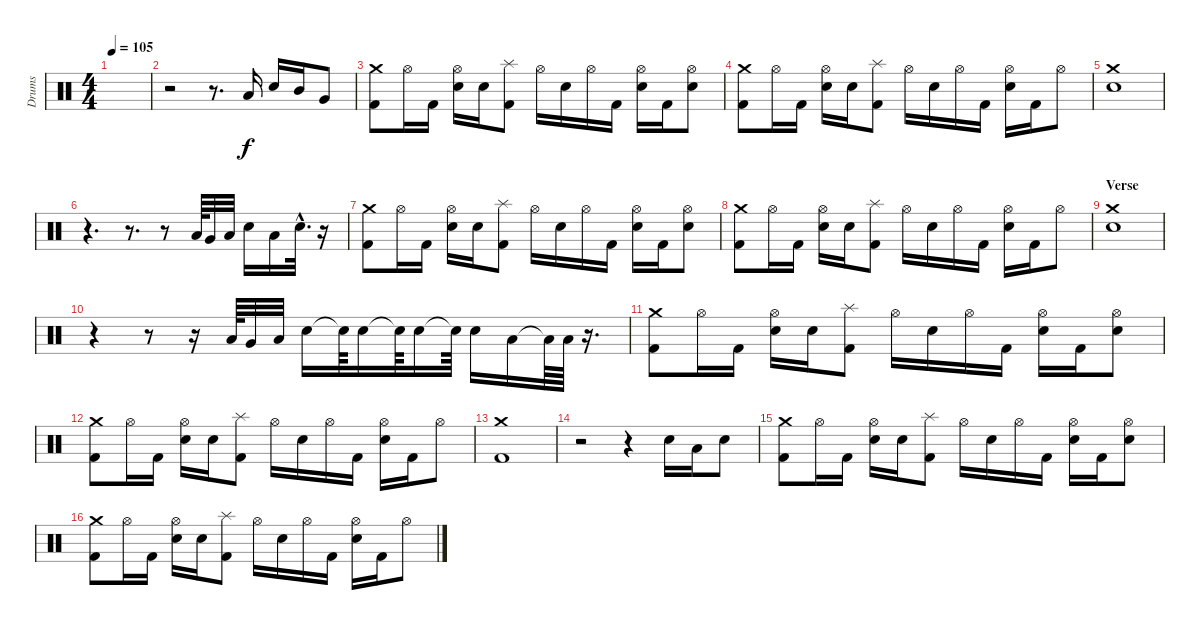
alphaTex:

\track ("Drums" "Drums") {instrument percussion}
\staff {score}
\articulation defaults
\ts (4 4)
\tempo 105
\clef neutral
\ks c
|
r.2 r.8{d} "Low Tom (hit)".16 "Electric Snare (hit)".16 "Mid Tom (hit)".16 "Very Low Tom (hit)".8 |
("Crash medium (hit)" "Kick (hit) 2").8 "Hi-Hat (open)".16 "Kick (hit) 2".16 ("Hi-Hat (open)" "Electric Snare (hit)").16 "Electric Snare (hit)".16 ("Splash (hit)" "Kick (hit) 2").8 "Hi-Hat (open)".16 "Electric Snare (hit)".16 "Hi-Hat (open)".16 "Kick (hit) 2".16 ("Hi-Hat (open)" "Electric Snare (hit)").16 "Kick (hit) 2".16 ("Hi-Hat (open)" "Electric Snare (hit)").8 |
("Crash medium (hit)" "Kick (hit) 2").8 "Hi-Hat (open)".16 "Kick (hit) 2".16 ("Hi-Hat (open)" "Electric Snare (hit)").16 "Electric Snare (hit)".16 ("Splash (hit)" "Kick (hit) 2").8 "Hi-Hat (open)".16 "Electric Snare (hit)".16 "Hi-Hat (open)".16 "Kick (hit) 2".16 ("Hi-Hat (open)" "Electric Snare (hit)").16 "Kick (hit) 2".16 "Hi-Hat (open)".8 |
("Crash medium (hit)" "Electric Snare (hit)").1 |
r.4{d} r.8{d} r.8 "Low Tom (hit)".64 "Very Low Tom (hit)".32 "Low Floor Tom (hit)".32 "Electric Snare (hit)".16 "Low Floor Tom (hit)".16 "Electric Snare (hit)"{hac}.32{d} r.16 |
("Crash medium (hit)" "Kick (hit) 2").8 "Hi-Hat (open)".16 "Kick (hit) 2".16 ("Hi-Hat (open)" "Electric Snare (hit)").16 "Electric Snare (hit)".16 ("Splash (hit)" "Kick (hit) 2").8 "Hi-Hat (open)".16 "Electric Snare (hit)".16 "Hi-Hat (open)".16 "Kick (hit) 2".16 ("Hi-Hat (open)" "Electric Snare (hit)").16 "Kick (hit) 2".16 ("Hi-Hat (open)" "Electric Snare (hit)").8 |
("Crash medium (hit)" "Kick (hit) 2").8 "Hi-Hat (open)".16 "Kick (hit) 2".16 ("Hi-Hat (open)" "Electric Snare (hit)").16 "Electric Snare (hit)".16 ("Splash (hit)" "Kick (hit) 2").8 "Hi-Hat (open)".16 "Electric Snare (hit)".16 "Hi-Hat (open)".16 "Kick (hit) 2".16 ("Hi-Hat (open)" "Electric Snare (hit)").16 "Kick (hit) 2".16 "Hi-Hat (open)".8 |
\section ("" "Verse")
("Crash medium (hit)" "Electric Snare (hit)").1 |
r.4 r.8 r.16 "Low Tom (hit)".64 "Very Low Tom (hit)".32 "Low Floor Tom (hit)".32 "Electric Snare (hit)".16 "Snare (hit) 2"{t}.64 "Electric Snare (hit)".16 "Snare (hit) 2"{t}.64 "Electric Snare (hit)".16 "Snare (hit) 2"{t}.64 "Electric Snare (hit)".16 "Low Tom (hit)".16 "Low Tom (hit)"{t}.64 "Low Floor Tom (hit)".64 r.16{d} |
("Crash medium (hit)" "Kick (hit) 2").8 "Hi-Hat (open)".16 "Kick (hit) 2".16 ("Hi-Hat (open)" "Electric Snare (hit)").16 "Electric Snare (hit)".16 ("Splash (hit)" "Kick (hit) 2").8 "Hi-Hat (open)".16 "Electric Snare (hit)".16 "Hi-Hat (open)".16 "Kick (hit) 2".16 ("Hi-Hat (open)" "Electric Snare (hit)").16 "Kick (hit) 2".16 ("Hi-Hat (open)" "Electric Snare (hit)").8 |
("Crash medium (hit)" "Kick (hit) 2").8 "Hi-Hat (open)".16 "Kick (hit) 2".16 ("Hi-Hat (open)" "Electric Snare (hit)").16 "Electric Snare (hit)".16 ("Splash (hit)" "Kick (hit) 2").8 "Hi-Hat (open)".16 "Electric Snare (hit)".16 "Hi-Hat (open)".16 "Kick (hit) 2".16 ("Hi-Hat (open)" "Electric Snare (hit)").16 "Kick (hit) 2".16 "Hi-Hat (open)".8 |
("Crash medium (hit)" "Kick (hit) 2").1 |
r.2 r.4 "Electric Snare (hit)".16 "Low Tom (hit)".16 "Electric Snare (hit)".8 |
("Crash medium (hit)" "Kick (hit) 2").8 "Hi-Hat (open)".16 "Kick (hit) 2".16 ("Hi-Hat (open)" "Electric Snare (hit)").16 "Electric Snare (hit)".16 ("Splash (hit)" "Kick (hit) 2").8 "Hi-Hat (open)".16 "Electric Snare (hit)".16 "Hi-Hat (open)".16 "Kick (hit) 2".16 ("Hi-Hat (open)" "Electric Snare (hit)").16 "Kick (hit) 2".16 ("Hi-Hat (open)" "Electric Snare (hit)").8 |
("Crash medium (hit)" "Kick (hit) 2").8 "Hi-Hat (open)".16 "Kick (hit) 2".16 ("Hi-Hat (open)" "Electric Snare (hit)").16 "Electric Snare (hit)".16 ("Splash (hit)" "Kick (hit) 2").8 "Hi-Hat (open)".16 "Electric Snare (hit)".16 "Hi-Hat (open)".16 "Kick (hit) 2".16 ("Hi-Hat (open)" "Electric Snare (hit)").16 "Kick (hit) 2".16 "Hi-Hat (open)".8
